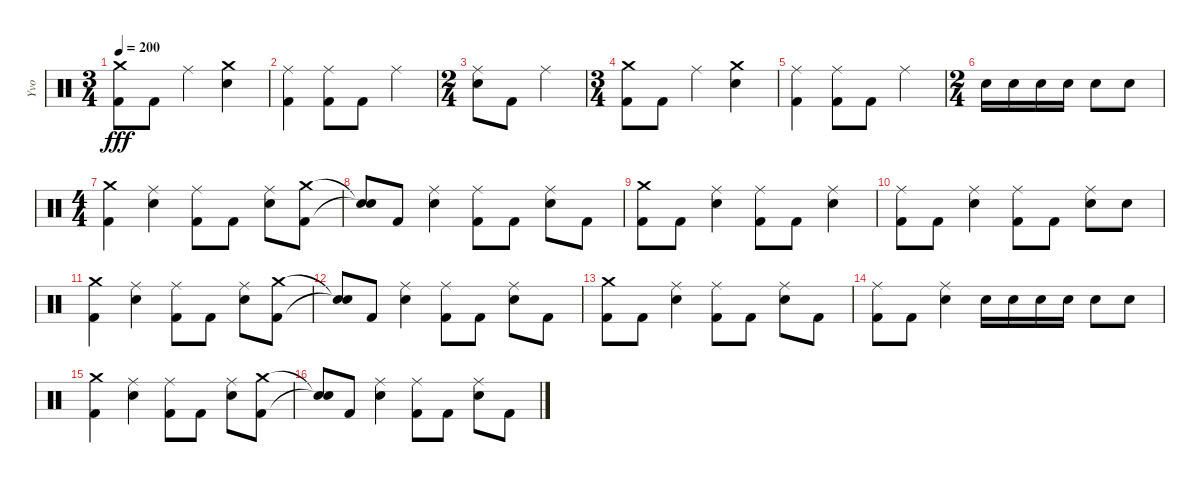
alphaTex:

\track ("Yvo" "Yvo") {instrument percussion}
\staff {score}
\articulation defaults
\ts (3 4)
\tempo 200
\clef neutral
\ks c
("Crash medium (hit)" "Kick (hit) 2").8{dy fff} "Kick (hit) 2".8 "Ride (middle)".4 ("Crash medium (hit)" "Electric Snare (hit)").4 |
("Ride (middle)" "Kick (hit) 2").4 ("Ride (middle)" "Kick (hit) 2").8 "Kick (hit) 2".8 "Ride (middle)".4 |
\ts (2 4)
("Ride (middle)" "Electric Snare (hit)").8 "Kick (hit) 2".8 "Ride (middle)".4 |
\ts (3 4)
("Crash medium (hit)" "Kick (hit) 2").8 "Kick (hit) 2".8 "Ride (middle)".4 ("Crash medium (hit)" "Electric Snare (hit)").4 |
("Ride (middle)" "Kick (hit) 2").4 ("Ride (middle)" "Kick (hit) 2").8 "Kick (hit) 2".8 "Ride (middle)".4 |
\ts (2 4)
"Electric Snare (hit)".16 "Electric Snare (hit)".16 "Electric Snare (hit)".16 "Electric Snare (hit)".16 "Electric Snare (hit)".8 "Electric Snare (hit)".8 |
\ts (4 4)
("Crash medium (hit)" "Kick (hit) 2").4 ("Ride (middle)" "Electric Snare (hit)").4 ("Ride (middle)" "Kick (hit) 2").8 "Kick (hit) 2".8 ("Ride (middle)" "Electric Snare (hit)").8 ("Crash medium (hit)" "Kick (hit) 2").8 |
("Snare (hit)"{t} "Snare (hit)"{t}).8 "Kick (hit) 2".8 ("Ride (middle)" "Electric Snare (hit)").4 ("Ride (middle)" "Kick (hit) 2").8 "Kick (hit) 2".8 ("Ride (middle)" "Electric Snare (hit)").8 "Kick (hit) 2".8 |
("Crash medium (hit)" "Kick (hit) 2").8 "Kick (hit) 2".8 ("Ride (middle)" "Electric Snare (hit)").4 ("Ride (middle)" "Kick (hit) 2").8 "Kick (hit) 2".8 ("Ride (middle)" "Electric Snare (hit)").4 |
("Ride (middle)" "Kick (hit) 2").8 "Kick (hit) 2".8 ("Ride (middle)" "Electric Snare (hit)").4 ("Ride (middle)" "Kick (hit) 2").8 "Kick (hit) 2".8 ("Ride (middle)" "Electric Snare (hit)").8 "Electric Snare (hit)".8 |
("Crash medium (hit)" "Kick (hit) 2").4 ("Ride (middle)" "Electric Snare (hit)").4 ("Ride (middle)" "Kick (hit) 2").8 "Kick (hit) 2".8 ("Ride (middle)" "Electric Snare (hit)").8 ("Crash medium (hit)" "Kick (hit) 2").8 |
("Snare (hit)"{t} "Snare (hit)"{t}).8 "Kick (hit) 2".8 ("Ride (middle)" "Electric Snare (hit)").4 ("Ride (middle)" "Kick (hit) 2").8 "Kick (hit) 2".8 ("Ride (middle)" "Electric Snare (hit)").8 "Kick (hit) 2".8 |
("Crash medium (hit)" "Kick (hit) 2").8 "Kick (hit) 2".8 ("Ride (middle)" "Electric Snare (hit)").4 ("Ride (middle)" "Kick (hit) 2").8 "Kick (hit) 2".8 ("Ride (middle)" "Electric Snare (hit)").8 "Kick (hit) 2".8 |
("Ride (middle)" "Kick (hit) 2").8 "Kick (hit) 2".8 ("Ride (middle)" "Electric Snare (hit)").4 "Electric Snare (hit)".16 "Electric Snare (hit)".16 "Electric Snare (hit)".16 "Electric Snare (hit)".16 "Electric Snare (hit)".8 "Electric Snare (hit)".8 |
("Crash medium (hit)" "Kick (hit) 2").4 ("Ride (middle)" "Electric Snare (hit)").4 ("Ride (middle)" "Kick (hit) 2").8 "Kick (hit) 2".8 ("Ride (middle)" "Electric Snare (hit)").8 ("Crash medium (hit)" "Kick (hit) 2").8 |
("Snare (hit)"{t} "Snare (hit)"{t}).8 "Kick (hit) 2".8 ("Ride (middle)" "Electric Snare (hit)").4 ("Ride (middle)" "Kick (hit) 2").8 "Kick (hit) 2".8 ("Ride (middle)" "Electric Snare (hit)").8 "Kick (hit) 2".8
